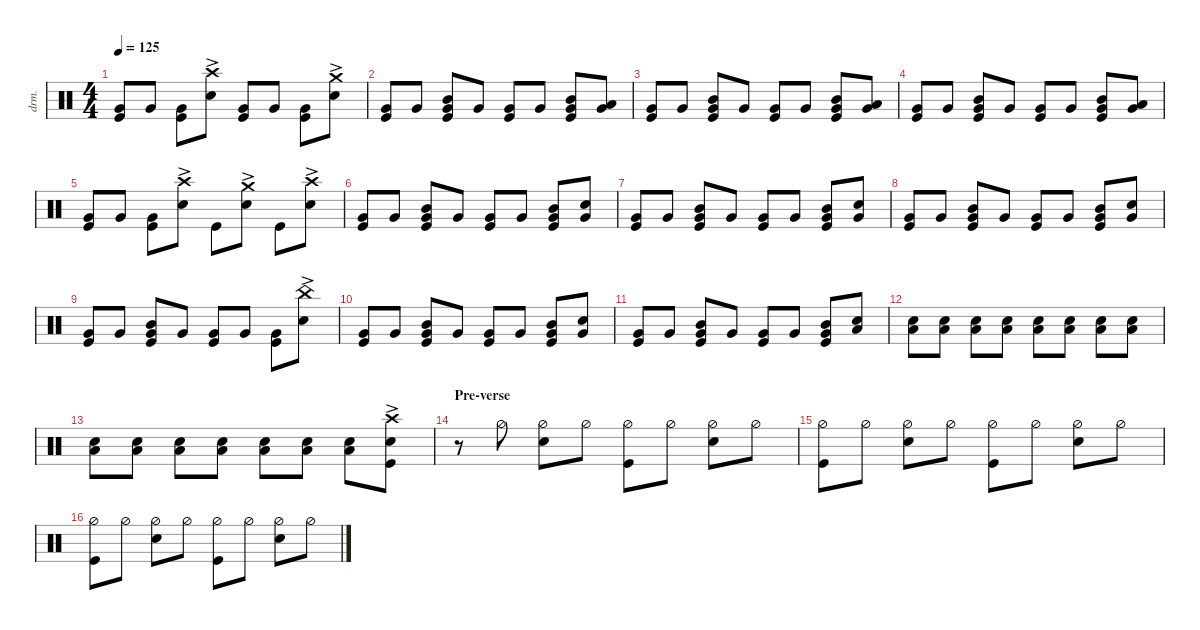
\defaultSystemsLayout 4
\hideDynamics
\bracketExtendMode nobrackets
\track ("Drums" "drm.") {defaultSystemsLayout 4 multiBarRest instrument percussion}
\staff {score}
\articulation defaults
\ts (4 4)
\tempo 125
\clef neutral
\ks c
("Kick (hit)" "Very Low Tom (hit)").8{dy f beam Up} "Very Low Tom (hit)".8{dy mf beam Up} ("Very Low Tom (hit)" "Kick (hit)").8{dy f beam Down} ("Snare (hit) 2" "Crash high (hit)"{ac}).8{beam Down} ("Very Low Tom (hit)" "Kick (hit)").8{beam Up} "Very Low Tom (hit)".8{dy mf beam Up} ("Very Low Tom (hit)" "Kick (hit)").8{dy f beam Down} ("Snare (hit) 2" "Crash medium (hit)"{ac}).8{beam Down} |
("Kick (hit)" "Very Low Tom (hit)").8{beam Up} "Very Low Tom (hit)".8{dy mf beam Up} ("Very Low Tom (hit)" "Kick (hit)" "Mid Tom (hit)").8{dy f beam Up} "Very Low Tom (hit)".8{dy mf beam Up} ("Very Low Tom (hit)" "Kick (hit)").8{dy f beam Up} "Very Low Tom (hit)".8{dy mf beam Up} ("Very Low Tom (hit)" "Kick (hit)" "Mid Tom (hit)").8{dy f beam Up} ("Very Low Tom (hit)" "Low Tom (hit)").8{beam Up} |
("Kick (hit)" "Very Low Tom (hit)").8{beam Up} "Very Low Tom (hit)".8{dy mf beam Up} ("Very Low Tom (hit)" "Kick (hit)" "Mid Tom (hit)").8{dy f beam Up} "Very Low Tom (hit)".8{dy mf beam Up} ("Very Low Tom (hit)" "Kick (hit)").8{dy f beam Up} "Very Low Tom (hit)".8{dy mf beam Up} ("Very Low Tom (hit)" "Kick (hit)" "Mid Tom (hit)").8{dy f beam Up} ("Very Low Tom (hit)" "Low Tom (hit)").8{beam Up} |
("Kick (hit)" "Very Low Tom (hit)").8{beam Up} "Very Low Tom (hit)".8{dy mf beam Up} ("Very Low Tom (hit)" "Kick (hit)" "Mid Tom (hit)").8{dy f beam Up} "Very Low Tom (hit)".8{dy mf beam Up} ("Very Low Tom (hit)" "Kick (hit)").8{dy f beam Up} "Very Low Tom (hit)".8{dy mf beam Up} ("Very Low Tom (hit)" "Kick (hit)" "Mid Tom (hit)").8{dy f beam Up} ("Very Low Tom (hit)" "Low Tom (hit)").8{beam Up} |
("Kick (hit)" "Very Low Tom (hit)").8{beam Up} "Very Low Tom (hit)".8{dy mf beam Up} ("Very Low Tom (hit)" "Kick (hit)").8{dy f beam Down} ("Crash high (hit)"{ac} "Snare (hit) 2").8{beam Down} "Kick (hit)".8{beam Down} ("Snare (hit) 2" "Crash medium (hit)"{ac}).8{beam Down} "Kick (hit)".8{beam Down} ("Snare (hit) 2" "Crash high (hit)"{ac}).8{beam Down} |
("Kick (hit)" "Very Low Tom (hit)").8{beam Up} "Very Low Tom (hit)".8{dy mf beam Up} ("Very Low Tom (hit)" "Kick (hit)" "Mid Tom (hit)").8{dy f beam Up} "Very Low Tom (hit)".8{dy mf beam Up} ("Very Low Tom (hit)" "Kick (hit)").8{dy f beam Up} "Very Low Tom (hit)".8{dy mf beam Up} ("Very Low Tom (hit)" "Kick (hit)" "Mid Tom (hit)").8{dy f beam Up} ("Very Low Tom (hit)" "Snare (hit) 2").8{beam Up} |
("Kick (hit)" "Very Low Tom (hit)").8{beam Up} "Very Low Tom (hit)".8{dy mf beam Up} ("Very Low Tom (hit)" "Kick (hit)" "Mid Tom (hit)").8{dy f beam Up} "Very Low Tom (hit)".8{dy mf beam Up} ("Very Low Tom (hit)" "Kick (hit)").8{dy f beam Up} "Very Low Tom (hit)".8{dy mf beam Up} ("Very Low Tom (hit)" "Kick (hit)" "Mid Tom (hit)").8{dy f beam Up} ("Very Low Tom (hit)" "Snare (hit) 2").8{beam Up} |
("Kick (hit)" "Very Low Tom (hit)").8{beam Up} "Very Low Tom (hit)".8{dy mf beam Up} ("Very Low Tom (hit)" "Kick (hit)" "Mid Tom (hit)").8{dy f beam Up} "Very Low Tom (hit)".8{dy mf beam Up} ("Very Low Tom (hit)" "Kick (hit)").8{dy f beam Up} "Very Low Tom (hit)".8{dy mf beam Up} ("Very Low Tom (hit)" "Kick (hit)" "Mid Tom (hit)").8{dy f beam Up} ("Very Low Tom (hit)" "Snare (hit) 2").8{beam Up} |
("Kick (hit)" "Very Low Tom (hit)").8{beam Up} "Very Low Tom (hit)".8{dy mf beam Up} ("Very Low Tom (hit)" "Kick (hit)" "Mid Tom (hit)").8{dy f beam Up} "Very Low Tom (hit)".8{dy mf beam Up} ("Very Low Tom (hit)" "Kick (hit)").8{dy f beam Up} "Very Low Tom (hit)".8{dy mf beam Up} ("Very Low Tom (hit)" "Kick (hit)").8{dy f beam Down} ("Snare (hit) 2" "China (hit)"{ac}).8{beam Down} |
("Kick (hit)" "Very Low Tom (hit)").8{beam Up} "Very Low Tom (hit)".8{dy mf beam Up} ("Very Low Tom (hit)" "Kick (hit)" "Mid Tom (hit)").8{dy f beam Up} "Very Low Tom (hit)".8{dy mf beam Up} ("Very Low Tom (hit)" "Kick (hit)").8{dy f beam Up} "Very Low Tom (hit)".8{dy mf beam Up} ("Very Low Tom (hit)" "Kick (hit)" "Mid Tom (hit)").8{dy f beam Up} ("Very Low Tom (hit)" "Snare (hit) 2").8{beam Up} |
("Kick (hit)" "Very Low Tom (hit)").8{beam Up} "Very Low Tom (hit)".8{dy mf beam Up} ("Very Low Tom (hit)" "Kick (hit)" "Mid Tom (hit)").8{dy f beam Up} "Very Low Tom (hit)".8{dy mf beam Up} ("Very Low Tom (hit)" "Kick (hit)").8{dy f beam Up} "Very Low Tom (hit)".8{dy mf beam Up} ("Very Low Tom (hit)" "Kick (hit)" "Mid Tom (hit)").8{dy f beam Up} ("Low Tom (hit)" "Snare (hit) 2").8{dy p beam Up} |
("Low Tom (hit)" "Snare (hit) 2").8{dy mp beam Down} ("Low Tom (hit)" "Snare (hit) 2").8{beam Down} ("Low Tom (hit)" "Snare (hit) 2").8{beam Down} ("Low Tom (hit)" "Snare (hit) 2").8{beam Down} ("Low Tom (hit)" "Snare (hit) 2").8{dy mf beam Down} ("Low Tom (hit)" "Snare (hit) 2").8{beam Down} ("Low Tom (hit)" "Snare (hit) 2").8{beam Down} ("Low Tom (hit)" "Snare (hit) 2").8{beam Down} |
("Low Tom (hit)" "Snare (hit) 2").8{dy f beam Down} ("Low Tom (hit)" "Snare (hit) 2").8{beam Down} ("Low Tom (hit)" "Snare (hit) 2").8{beam Down} ("Low Tom (hit)" "Snare (hit) 2").8{beam Down} ("Low Tom (hit)" "Snare (hit) 2").8{beam Down} ("Low Tom (hit)" "Snare (hit) 2").8{beam Down} ("Low Tom (hit)" "Snare (hit) 2").8{beam Down} ("Snare (hit) 2"{ac} "Crash high (hit)"{ac} "Kick (hit)"{ac}).8{beam Down} |
\section ("" "Pre-verse")
r.8{beam Down} "Hi-Hat (half)".8{beam Down} ("Hi-Hat (half)" "Snare (hit) 2").8{beam Down} "Hi-Hat (half)".8{beam Down} ("Hi-Hat (half)" "Kick (hit)").8{beam Down} "Hi-Hat (half)".8{beam Down} ("Hi-Hat (half)" "Snare (hit) 2").8{beam Down} "Hi-Hat (half)".8{beam Down} |
("Hi-Hat (half)" "Kick (hit)").8{beam Down} "Hi-Hat (half)".8{beam Down} ("Hi-Hat (half)" "Snare (hit) 2").8{beam Down} "Hi-Hat (half)".8{beam Down} ("Hi-Hat (half)" "Kick (hit)").8{beam Down} "Hi-Hat (half)".8{beam Down} ("Hi-Hat (half)" "Snare (hit) 2").8{beam Down} "Hi-Hat (half)".8{beam Down} |
("Hi-Hat (half)" "Kick (hit)").8{beam Down} "Hi-Hat (half)".8{beam Down} ("Hi-Hat (half)" "Snare (hit) 2").8{beam Down} "Hi-Hat (half)".8{beam Down} ("Hi-Hat (half)" "Kick (hit)").8{beam Down} "Hi-Hat (half)".8{beam Down} ("Hi-Hat (half)" "Snare (hit) 2").8{beam Down} "Hi-Hat (half)".8{beam Down}
